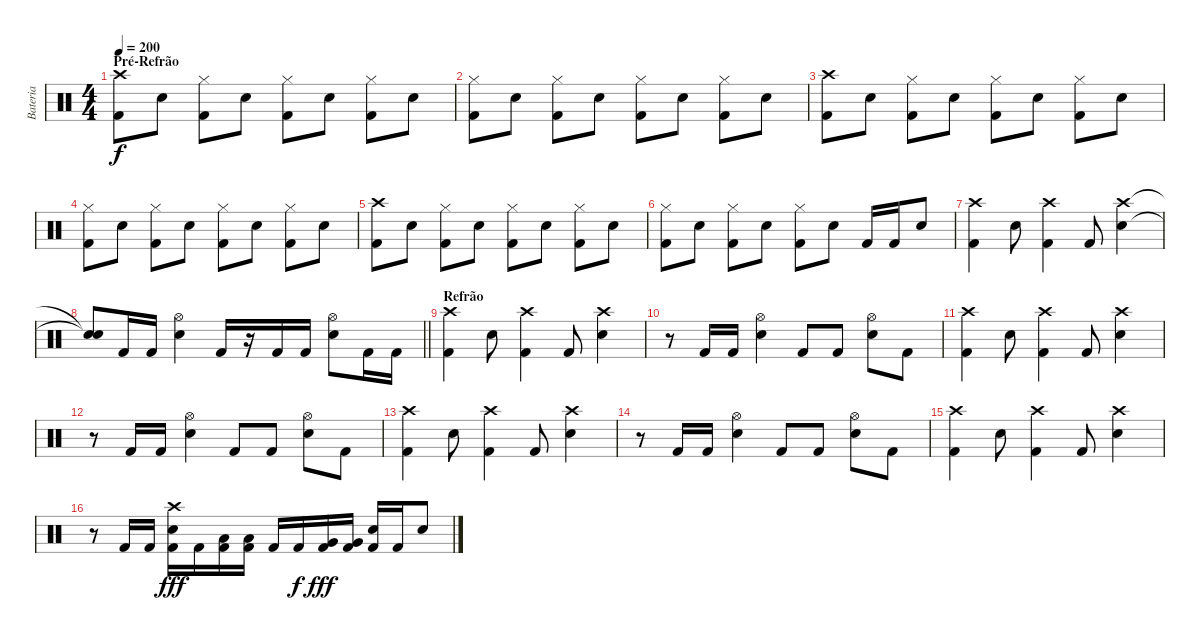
\track ("Bateria" "Bateria") {instrument percussion}
\staff {score}
\articulation defaults
\ts (4 4)
\section ("" "Pré-Refrão")
\tempo 200
\clef neutral
\ks c
("Crash high (hit)" "Kick (hit) 2").8{dy f} "Electric Snare (hit)".8 ("Hi-Hat (closed)" "Kick (hit) 2").8 "Electric Snare (hit)".8 ("Hi-Hat (closed)" "Kick (hit) 2").8 "Electric Snare (hit)".8 ("Hi-Hat (closed)" "Kick (hit) 2").8 "Electric Snare (hit)".8 |
("Hi-Hat (closed)" "Kick (hit) 2").8 "Electric Snare (hit)".8 ("Hi-Hat (closed)" "Kick (hit) 2").8 "Electric Snare (hit)".8 ("Hi-Hat (closed)" "Kick (hit) 2").8 "Electric Snare (hit)".8 ("Hi-Hat (closed)" "Kick (hit) 2").8 "Electric Snare (hit)".8 |
("Crash high (hit)" "Kick (hit) 2").8 "Electric Snare (hit)".8 ("Hi-Hat (closed)" "Kick (hit) 2").8 "Electric Snare (hit)".8 ("Hi-Hat (closed)" "Kick (hit) 2").8 "Electric Snare (hit)".8 ("Hi-Hat (closed)" "Kick (hit) 2").8 "Electric Snare (hit)".8 |
("Hi-Hat (closed)" "Kick (hit) 2").8 "Electric Snare (hit)".8 ("Hi-Hat (closed)" "Kick (hit) 2").8 "Electric Snare (hit)".8 ("Hi-Hat (closed)" "Kick (hit) 2").8 "Electric Snare (hit)".8 ("Hi-Hat (closed)" "Kick (hit) 2").8 "Electric Snare (hit)".8 |
("Crash high (hit)" "Kick (hit) 2").8 "Electric Snare (hit)".8 ("Hi-Hat (closed)" "Kick (hit) 2").8 "Electric Snare (hit)".8 ("Hi-Hat (closed)" "Kick (hit) 2").8 "Electric Snare (hit)".8 ("Hi-Hat (closed)" "Kick (hit) 2").8 "Electric Snare (hit)".8 |
("Hi-Hat (closed)" "Kick (hit) 2").8 "Electric Snare (hit)".8 ("Hi-Hat (closed)" "Kick (hit) 2").8 "Electric Snare (hit)".8 ("Hi-Hat (closed)" "Kick (hit) 2").8 "Electric Snare (hit)".8 "Kick (hit) 2".16 "Kick (hit) 2".16 "Electric Snare (hit)".8 |
("Crash high (hit)" "Kick (hit) 2").4 "Electric Snare (hit)".8 ("Crash high (hit)" "Kick (hit) 2").4 "Kick (hit) 2".8 ("Crash high (hit)" "Electric Snare (hit)").4 |
\barLineRight lightlight
("Snare (hit)"{t} "Snare (hit)"{t}).8 "Kick (hit) 2".16 "Kick (hit) 2".16 ("Hi-Hat (open)" "Electric Snare (hit)").4 "Kick (hit) 2".16 r.16 "Kick (hit) 2".16 "Kick (hit) 2".16 ("Hi-Hat (open)" "Electric Snare (hit)").8 "Kick (hit) 2".16 "Kick (hit) 2".16 |
\section ("" "Refrão")
("Crash high (hit)" "Kick (hit) 2").4 "Electric Snare (hit)".8 ("Crash high (hit)" "Kick (hit) 2").4 "Kick (hit) 2".8 ("Crash high (hit)" "Electric Snare (hit)").4 |
r.8 "Kick (hit) 2".16 "Kick (hit) 2".16 ("Hi-Hat (open)" "Electric Snare (hit)").4 "Kick (hit) 2".8 "Kick (hit) 2".8 ("Hi-Hat (open)" "Electric Snare (hit)").8 "Kick (hit) 2".8 |
("Crash high (hit)" "Kick (hit) 2").4 "Electric Snare (hit)".8 ("Crash high (hit)" "Kick (hit) 2").4 "Kick (hit) 2".8 ("Crash high (hit)" "Electric Snare (hit)").4 |
r.8 "Kick (hit) 2".16 "Kick (hit) 2".16 ("Hi-Hat (open)" "Electric Snare (hit)").4 "Kick (hit) 2".8 "Kick (hit) 2".8 ("Hi-Hat (open)" "Electric Snare (hit)").8 "Kick (hit) 2".8 |
("Crash high (hit)" "Kick (hit) 2").4 "Electric Snare (hit)".8 ("Crash high (hit)" "Kick (hit) 2").4 "Kick (hit) 2".8 ("Crash high (hit)" "Electric Snare (hit)").4 |
r.8 "Kick (hit) 2".16 "Kick (hit) 2".16 ("Hi-Hat (open)" "Electric Snare (hit)").4 "Kick (hit) 2".8 "Kick (hit) 2".8 ("Hi-Hat (open)" "Electric Snare (hit)").8 "Kick (hit) 2".8 |
("Crash high (hit)" "Kick (hit) 2").4 "Electric Snare (hit)".8 ("Crash high (hit)" "Kick (hit) 2").4 "Kick (hit) 2".8 ("Crash high (hit)" "Electric Snare (hit)").4 |
r.8 "Kick (hit) 2".16 "Kick (hit) 2".16 ("Crash high (hit)" "Electric Snare (hit)" "Kick (hit) 2").16{dy fff} "Kick (hit) 2".16 ("Low Tom (hit)" "Kick (hit) 2").16 ("Low Tom (hit)" "Kick (hit) 2").16 "Kick (hit) 2".16 "Kick (hit) 2".16{dy f} ("Very Low Tom (hit)" "Kick (hit) 2").16{dy fff} ("Very Low Tom (hit)" "Kick (hit) 2").16 ("Electric Snare (hit)" "Kick (hit) 2").16 "Kick (hit) 2".16 "Electric Snare (hit)".8
